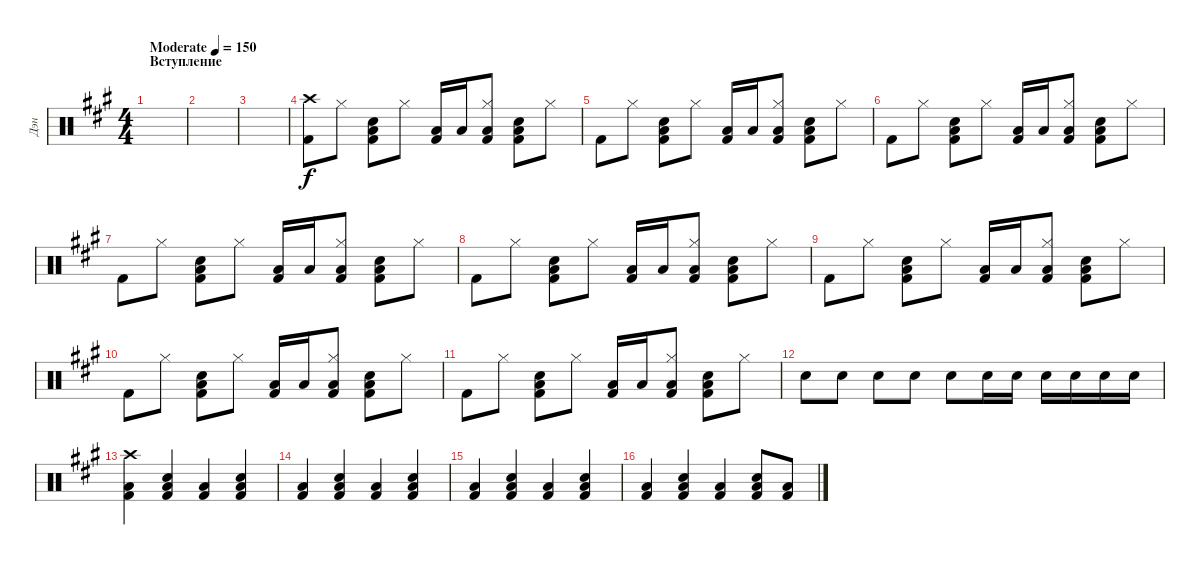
\track ("Дэн" "Дэн") {instrument percussion}
\staff {score}
\articulation defaults
\ts (4 4)
\section ("" "Вступление")
\tempo (150 "Moderate")
\clef neutral
\ks f#minor
|
|
|
("Crash high (hit)" "Kick (hit) 2").8 "Hi-Hat (closed)".8 ("Snare (hit) 2" "Low Tom (hit)" "Kick (hit) 2").8 "Hi-Hat (closed)".8 ("Low Tom (hit)" "Kick (hit) 2").16 "Low Tom (hit)".16 ("Hi-Hat (closed)" "Low Tom (hit)" "Kick (hit) 2").8 ("Snare (hit) 2" "Low Tom (hit)" "Kick (hit) 2").8 "Hi-Hat (closed)".8 |
"Kick (hit) 2".8 "Hi-Hat (closed)".8 ("Snare (hit) 2" "Low Tom (hit)" "Kick (hit) 2").8 "Hi-Hat (closed)".8 ("Low Tom (hit)" "Kick (hit) 2").16 "Low Tom (hit)".16 ("Hi-Hat (closed)" "Low Tom (hit)" "Kick (hit) 2").8 ("Snare (hit) 2" "Low Tom (hit)" "Kick (hit) 2").8 "Hi-Hat (closed)".8 |
"Kick (hit) 2".8 "Hi-Hat (closed)".8 ("Snare (hit) 2" "Low Tom (hit)" "Kick (hit) 2").8 "Hi-Hat (closed)".8 ("Low Tom (hit)" "Kick (hit) 2").16 "Low Tom (hit)".16 ("Hi-Hat (closed)" "Low Tom (hit)" "Kick (hit) 2").8 ("Snare (hit) 2" "Low Tom (hit)" "Kick (hit) 2").8 "Hi-Hat (closed)".8 |
"Kick (hit) 2".8 "Hi-Hat (closed)".8 ("Snare (hit) 2" "Low Tom (hit)" "Kick (hit) 2").8 "Hi-Hat (closed)".8 ("Low Tom (hit)" "Kick (hit) 2").16 "Low Tom (hit)".16 ("Hi-Hat (closed)" "Low Tom (hit)" "Kick (hit) 2").8 ("Snare (hit) 2" "Low Tom (hit)" "Kick (hit) 2").8 "Hi-Hat (closed)".8 |
"Kick (hit) 2".8 "Hi-Hat (closed)".8 ("Snare (hit) 2" "Low Tom (hit)" "Kick (hit) 2").8 "Hi-Hat (closed)".8 ("Low Tom (hit)" "Kick (hit) 2").16 "Low Tom (hit)".16 ("Hi-Hat (closed)" "Low Tom (hit)" "Kick (hit) 2").8 ("Snare (hit) 2" "Low Tom (hit)" "Kick (hit) 2").8 "Hi-Hat (closed)".8 |
"Kick (hit) 2".8 "Hi-Hat (closed)".8 ("Snare (hit) 2" "Low Tom (hit)" "Kick (hit) 2").8 "Hi-Hat (closed)".8 ("Low Tom (hit)" "Kick (hit) 2").16 "Low Tom (hit)".16 ("Hi-Hat (closed)" "Low Tom (hit)" "Kick (hit) 2").8 ("Snare (hit) 2" "Low Tom (hit)" "Kick (hit) 2").8 "Hi-Hat (closed)".8 |
"Kick (hit) 2".8 "Hi-Hat (closed)".8 ("Snare (hit) 2" "Low Tom (hit)" "Kick (hit) 2").8 "Hi-Hat (closed)".8 ("Low Tom (hit)" "Kick (hit) 2").16 "Low Tom (hit)".16 ("Hi-Hat (closed)" "Low Tom (hit)" "Kick (hit) 2").8 ("Snare (hit) 2" "Low Tom (hit)" "Kick (hit) 2").8 "Hi-Hat (closed)".8 |
"Kick (hit) 2".8 "Hi-Hat (closed)".8 ("Snare (hit) 2" "Low Tom (hit)" "Kick (hit) 2").8 "Hi-Hat (closed)".8 ("Low Tom (hit)" "Kick (hit) 2").16 "Low Tom (hit)".16 ("Hi-Hat (closed)" "Low Tom (hit)" "Kick (hit) 2").8 ("Snare (hit) 2" "Low Tom (hit)" "Kick (hit) 2").8 "Hi-Hat (closed)".8 |
"Snare (hit) 2".8 "Snare (hit) 2".8 "Snare (hit) 2".8 "Snare (hit) 2".8 "Snare (hit) 2".8 "Snare (hit) 2".16 "Snare (hit) 2".16 "Snare (hit) 2".16 "Snare (hit) 2".16 "Snare (hit) 2".16 "Snare (hit) 2".16 |
("Crash high (hit)" "Low Tom (hit)" "Kick (hit) 2").4 ("Snare (hit) 2" "Low Tom (hit)" "Kick (hit) 2").4 ("Low Tom (hit)" "Kick (hit) 2").4 ("Snare (hit) 2" "Low Tom (hit)" "Kick (hit) 2").4 |
("Low Tom (hit)" "Kick (hit) 2").4 ("Snare (hit) 2" "Low Tom (hit)" "Kick (hit) 2").4 ("Low Tom (hit)" "Kick (hit) 2").4 ("Snare (hit) 2" "Low Tom (hit)" "Kick (hit) 2").4 |
("Low Tom (hit)" "Kick (hit) 2").4 ("Snare (hit) 2" "Low Tom (hit)" "Kick (hit) 2").4 ("Low Tom (hit)" "Kick (hit) 2").4 ("Snare (hit) 2" "Low Tom (hit)" "Kick (hit) 2").4 |
("Low Tom (hit)" "Kick (hit) 2").4 ("Snare (hit) 2" "Low Tom (hit)" "Kick (hit) 2").4 ("Low Tom (hit)" "Kick (hit) 2").4 ("Snare (hit) 2" "Low Tom (hit)" "Kick (hit) 2").8 ("Low Tom (hit)" "Kick (hit) 2").8
